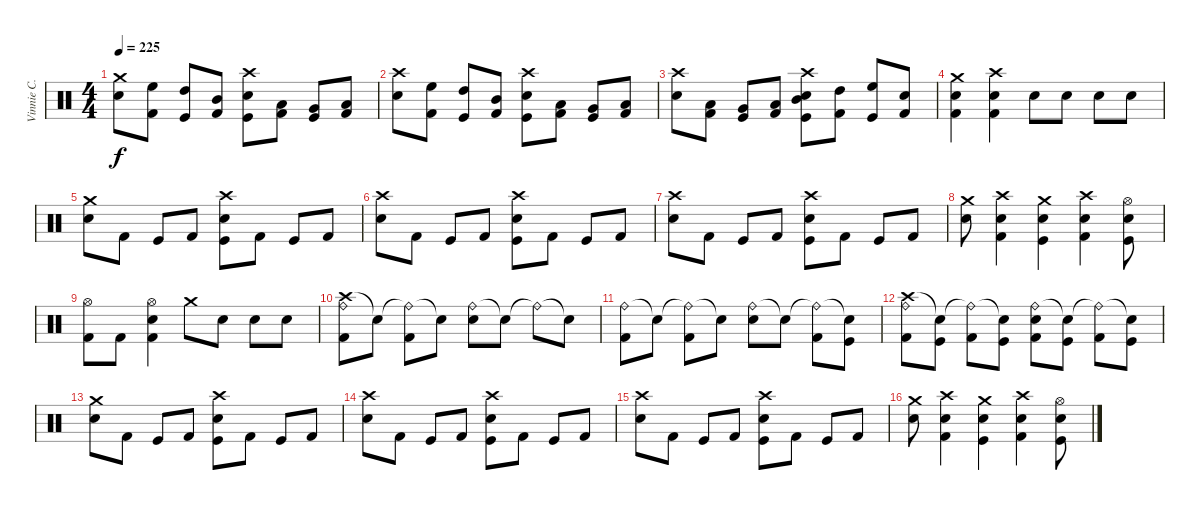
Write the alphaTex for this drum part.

\track ("Vinnie C." "Vinnie C.") {instrument percussion}
\staff {score}
\articulation defaults
\ts (4 4)
\tempo 225
\clef neutral
\ks c
("Crash medium (hit)" "Electric Snare (hit)").8{dy f} ("High Floor Tom (hit)" "Kick (hit) 2").8 ("High Tom (hit)" "Kick (hit)").8 ("Mid Tom (hit)" "Kick (hit) 2").8 ("Crash high (hit)" "Electric Snare (hit)" "Kick (hit)").8 ("Low Tom (hit)" "Kick (hit) 2").8 ("Very Low Tom (hit)" "Kick (hit)").8 ("Low Floor Tom (hit)" "Kick (hit) 2").8 |
("Crash high (hit)" "Electric Snare (hit)").8 ("High Floor Tom (hit)" "Kick (hit) 2").8 ("High Tom (hit)" "Kick (hit)").8 ("Mid Tom (hit)" "Kick (hit) 2").8 ("Crash high (hit)" "Electric Snare (hit)" "Kick (hit)").8 ("Low Tom (hit)" "Kick (hit) 2").8 ("Very Low Tom (hit)" "Kick (hit)").8 ("Low Floor Tom (hit)" "Kick (hit) 2").8 |
("Crash high (hit)" "Electric Snare (hit)").8 ("Low Floor Tom (hit)" "Kick (hit) 2").8 ("Very Low Tom (hit)" "Kick (hit)").8 ("Low Tom (hit)" "Kick (hit) 2").8 ("Crash high (hit)" "Mid Tom (hit)" "Electric Snare (hit)" "Kick (hit)").8 ("High Tom (hit)" "Kick (hit) 2").8 ("High Floor Tom (hit)" "Kick (hit)").8 ("Electric Snare (hit)" "Kick (hit) 2").8 |
("Crash medium (hit)" "Electric Snare (hit)" "Kick (hit) 2").4 ("Crash high (hit)" "Electric Snare (hit)" "Kick (hit) 2").4 "Electric Snare (hit)".8 "Electric Snare (hit)".8 "Electric Snare (hit)".8 "Electric Snare (hit)".8 |
("Crash medium (hit)" "Electric Snare (hit)").8 "Kick (hit) 2".8 "Kick (hit)".8 "Kick (hit) 2".8 ("Crash high (hit)" "Electric Snare (hit)" "Kick (hit)").8 "Kick (hit) 2".8 "Kick (hit)".8 "Kick (hit) 2".8 |
("Crash high (hit)" "Electric Snare (hit)").8 "Kick (hit) 2".8 "Kick (hit)".8 "Kick (hit) 2".8 ("Crash high (hit)" "Electric Snare (hit)" "Kick (hit)").8 "Kick (hit) 2".8 "Kick (hit)".8 "Kick (hit) 2".8 |
("Crash high (hit)" "Electric Snare (hit)").8 "Kick (hit) 2".8 "Kick (hit)".8 "Kick (hit) 2".8 ("Crash high (hit)" "Electric Snare (hit)" "Kick (hit)").8 "Kick (hit) 2".8 "Kick (hit)".8 "Kick (hit) 2".8 |
("Crash medium (hit)" "Electric Snare (hit)").8 ("Crash high (hit)" "Electric Snare (hit)" "Kick (hit) 2").4 ("Crash medium (hit)" "Electric Snare (hit)" "Kick (hit)").4 ("Crash high (hit)" "Electric Snare (hit)" "Kick (hit) 2").4 ("Hi-Hat (open)" "Electric Snare (hit)" "Kick (hit)").8 |
("Hi-Hat (open)" "Kick (hit) 2").8 "Kick (hit) 2".8 ("Hi-Hat (open)" "Electric Snare (hit)" "Kick (hit) 2").4 "Crash medium (hit)".8 "Electric Snare (hit)".8 "Electric Snare (hit)".8 "Electric Snare (hit)".8 |
("Crash high (hit)" "Ride (bell)" "Kick (hit) 2").8 "Snare (hit)"{t}.8 ("Ride (bell)"{t} "Kick (hit) 2").8 "Snare (hit)"{t}.8 ("Ride (bell)" "Electric Snare (hit)").8 "Snare (hit)"{t}.8 "Ride (bell)"{t}.8 "Snare (hit)"{t}.8 |
("Ride (bell)" "Kick (hit) 2").8 "Snare (hit)"{t}.8 ("Ride (bell)"{t} "Kick (hit) 2").8 "Snare (hit)"{t}.8 ("Ride (bell)" "Electric Snare (hit)").8 "Snare (hit)"{t}.8 ("Ride (bell)"{t} "Kick (hit) 2").8 ("Snare (hit)"{t} "Kick (hit)").8 |
("Crash high (hit)" "Ride (bell)" "Kick (hit) 2").8 ("Snare (hit)"{t} "Kick (hit)").8 ("Ride (bell)"{t} "Kick (hit) 2").8 ("Snare (hit)"{t} "Kick (hit)").8 ("Ride (bell)" "Electric Snare (hit)" "Kick (hit) 2").8 ("Snare (hit)"{t} "Kick (hit)").8 ("Ride (bell)"{t} "Kick (hit) 2").8 ("Snare (hit)"{t} "Kick (hit)").8 |
("Crash medium (hit)" "Electric Snare (hit)").8 "Kick (hit) 2".8 "Kick (hit)".8 "Kick (hit) 2".8 ("Crash high (hit)" "Electric Snare (hit)" "Kick (hit)").8 "Kick (hit) 2".8 "Kick (hit)".8 "Kick (hit) 2".8 |
("Crash high (hit)" "Electric Snare (hit)").8 "Kick (hit) 2".8 "Kick (hit)".8 "Kick (hit) 2".8 ("Crash high (hit)" "Electric Snare (hit)" "Kick (hit)").8 "Kick (hit) 2".8 "Kick (hit)".8 "Kick (hit) 2".8 |
("Crash high (hit)" "Electric Snare (hit)").8 "Kick (hit) 2".8 "Kick (hit)".8 "Kick (hit) 2".8 ("Crash high (hit)" "Electric Snare (hit)" "Kick (hit)").8 "Kick (hit) 2".8 "Kick (hit)".8 "Kick (hit) 2".8 |
("Crash medium (hit)" "Electric Snare (hit)").8 ("Crash high (hit)" "Electric Snare (hit)" "Kick (hit) 2").4 ("Crash medium (hit)" "Electric Snare (hit)" "Kick (hit)").4 ("Crash high (hit)" "Electric Snare (hit)" "Kick (hit) 2").4 ("Hi-Hat (open)" "Electric Snare (hit)" "Kick (hit)").8
